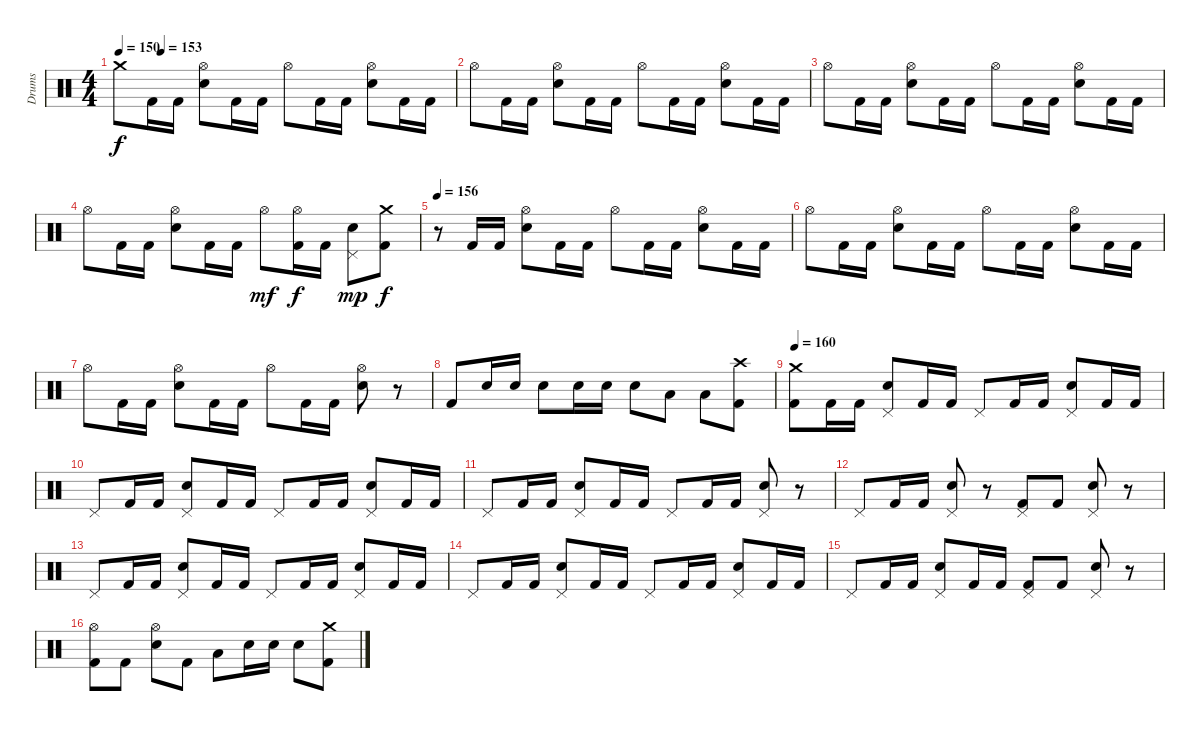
\track ("Drums" "Drums") {instrument percussion}
\staff {score}
\articulation defaults
\ts (4 4)
\tempo 150
\tempo (153 0.125)
\clef neutral
\ks c "Crash medium (hit)".8{dy f} "Kick (hit) 2".16 "Kick (hit) 2".16
("Hi-Hat (open)" "Snare (hit) 2").8 "Kick (hit) 2".16 "Kick (hit) 2".16 "Hi-Hat (open)".8 "Kick (hit) 2".16 "Kick (hit) 2".16 ("Hi-Hat (open)" "Snare (hit) 2").8 "Kick (hit) 2".16 "Kick (hit) 2".16 |
"Hi-Hat (open)".8 "Kick (hit) 2".16 "Kick (hit) 2".16 ("Hi-Hat (open)" "Snare (hit) 2").8 "Kick (hit) 2".16 "Kick (hit) 2".16 "Hi-Hat (open)".8 "Kick (hit) 2".16 "Kick (hit) 2".16 ("Hi-Hat (open)" "Snare (hit) 2").8 "Kick (hit) 2".16 "Kick (hit) 2".16 |
"Hi-Hat (open)".8 "Kick (hit) 2".16 "Kick (hit) 2".16 ("Hi-Hat (open)" "Snare (hit) 2").8 "Kick (hit) 2".16 "Kick (hit) 2".16 "Hi-Hat (open)".8 "Kick (hit) 2".16 "Kick (hit) 2".16 ("Hi-Hat (open)" "Snare (hit) 2").8 "Kick (hit) 2".16 "Kick (hit) 2".16 |
"Hi-Hat (open)".8 "Kick (hit) 2".16 "Kick (hit) 2".16 ("Hi-Hat (open)" "Snare (hit) 2").8 "Kick (hit) 2".16 "Kick (hit) 2".16 "Hi-Hat (open)".8{dy mf} ("Hi-Hat (open)" "Kick (hit) 2").16{dy f} "Kick (hit) 2".16 ("Pedal Hi-Hat (hit)" "Snare (hit) 2").8{dy mp} ("Crash medium (hit)" "Kick (hit) 2").8{dy f} |
\tempo 156
r.8 "Kick (hit) 2".16 "Kick (hit) 2".16 ("Hi-Hat (open)" "Snare (hit) 2").8 "Kick (hit) 2".16 "Kick (hit) 2".16 "Hi-Hat (open)".8 "Kick (hit) 2".16 "Kick (hit) 2".16 ("Hi-Hat (open)" "Snare (hit) 2").8 "Kick (hit) 2".16 "Kick (hit) 2".16 |
"Hi-Hat (open)".8 "Kick (hit) 2".16 "Kick (hit) 2".16 ("Hi-Hat (open)" "Snare (hit) 2").8 "Kick (hit) 2".16 "Kick (hit) 2".16 "Hi-Hat (open)".8 "Kick (hit) 2".16 "Kick (hit) 2".16 ("Hi-Hat (open)" "Snare (hit) 2").8 "Kick (hit) 2".16 "Kick (hit) 2".16 |
"Hi-Hat (open)".8 "Kick (hit) 2".16 "Kick (hit) 2".16 ("Hi-Hat (open)" "Snare (hit) 2").8 "Kick (hit) 2".16 "Kick (hit) 2".16 "Hi-Hat (open)".8 "Kick (hit) 2".16 "Kick (hit) 2".16 ("Hi-Hat (open)" "Snare (hit) 2").8 r.8 |
"Kick (hit) 2".8 "Snare (hit) 2".16 "Snare (hit) 2".16 "Snare (hit) 2".8 "Snare (hit) 2".16 "Snare (hit) 2".16 "Snare (hit) 2".8 "Low Tom (hit)".8 "Low Tom (hit)".8 ("Crash high (hit)" "Kick (hit) 2").8 |
\tempo 160
("Crash medium (hit)" "Kick (hit) 2").8 "Kick (hit) 2".16 "Kick (hit) 2".16 ("Pedal Hi-Hat (hit)" "Snare (hit) 2").8 "Kick (hit) 2".16 "Kick (hit) 2".16 "Pedal Hi-Hat (hit)".8 "Kick (hit) 2".16 "Kick (hit) 2".16 ("Pedal Hi-Hat (hit)" "Snare (hit) 2").8 "Kick (hit) 2".16 "Kick (hit) 2".16 |
"Pedal Hi-Hat (hit)".8 "Kick (hit) 2".16 "Kick (hit) 2".16 ("Pedal Hi-Hat (hit)" "Snare (hit) 2").8 "Kick (hit) 2".16 "Kick (hit) 2".16 "Pedal Hi-Hat (hit)".8 "Kick (hit) 2".16 "Kick (hit) 2".16 ("Pedal Hi-Hat (hit)" "Snare (hit) 2").8 "Kick (hit) 2".16 "Kick (hit) 2".16 |
"Pedal Hi-Hat (hit)".8 "Kick (hit) 2".16 "Kick (hit) 2".16 ("Pedal Hi-Hat (hit)" "Snare (hit) 2").8 "Kick (hit) 2".16 "Kick (hit) 2".16 "Pedal Hi-Hat (hit)".8 "Kick (hit) 2".16 "Kick (hit) 2".16 ("Pedal Hi-Hat (hit)" "Snare (hit) 2").8 r.8 |
"Pedal Hi-Hat (hit)".8 "Kick (hit) 2".16 "Kick (hit) 2".16 ("Pedal Hi-Hat (hit)" "Snare (hit) 2").8 r.8 ("Pedal Hi-Hat (hit)" "Kick (hit) 2").8 "Kick (hit) 2".8 ("Pedal Hi-Hat (hit)" "Snare (hit) 2").8 r.8 |
"Pedal Hi-Hat (hit)".8 "Kick (hit) 2".16 "Kick (hit) 2".16 ("Pedal Hi-Hat (hit)" "Snare (hit) 2").8 "Kick (hit) 2".16 "Kick (hit) 2".16 "Pedal Hi-Hat (hit)".8 "Kick (hit) 2".16 "Kick (hit) 2".16 ("Pedal Hi-Hat (hit)" "Snare (hit) 2").8 "Kick (hit) 2".16 "Kick (hit) 2".16 |
"Pedal Hi-Hat (hit)".8 "Kick (hit) 2".16 "Kick (hit) 2".16 ("Pedal Hi-Hat (hit)" "Snare (hit) 2").8 "Kick (hit) 2".16 "Kick (hit) 2".16 "Pedal Hi-Hat (hit)".8 "Kick (hit) 2".16 "Kick (hit) 2".16 ("Pedal Hi-Hat (hit)" "Snare (hit) 2").8 "Kick (hit) 2".16 "Kick (hit) 2".16 |
"Pedal Hi-Hat (hit)".8 "Kick (hit) 2".16 "Kick (hit) 2".16 ("Pedal Hi-Hat (hit)" "Snare (hit) 2").8 "Kick (hit) 2".16 "Kick (hit) 2".16 ("Pedal Hi-Hat (hit)" "Kick (hit) 2").8 "Kick (hit) 2".8 ("Pedal Hi-Hat (hit)" "Snare (hit) 2").8 r.8 |
("Hi-Hat (open)" "Kick (hit) 2").8 "Kick (hit) 2".8 ("Hi-Hat (open)" "Snare (hit) 2").8 "Kick (hit) 2".8 "Low Tom (hit)".8 "Snare (hit) 2".16 "Snare (hit) 2".16 "Snare (hit) 2".8 ("Crash medium (hit)" "Kick (hit) 2").8
